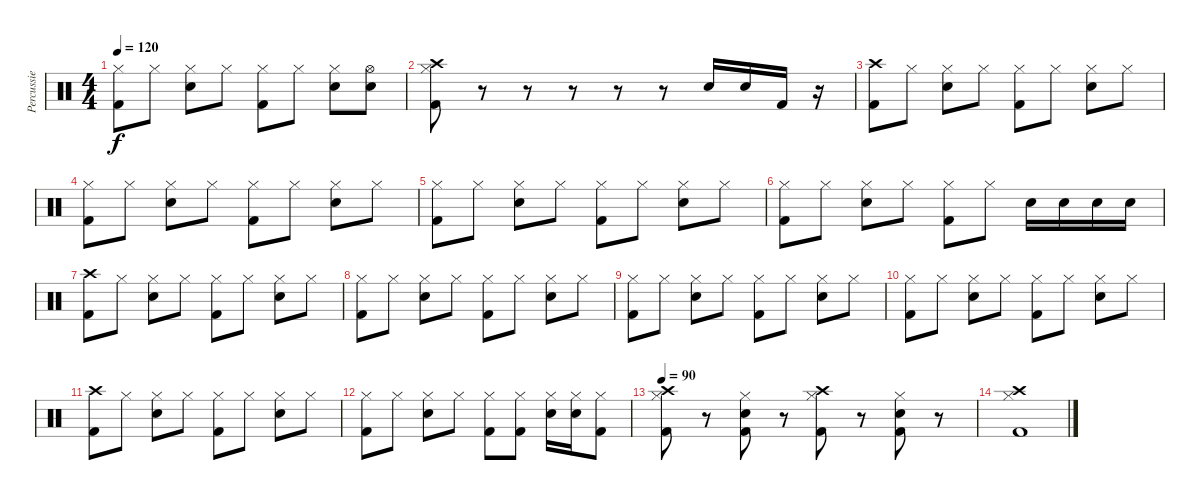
\track ("Percussie" "Percussie") {instrument percussion}
\staff {score}
\articulation defaults
\ts (4 4)
\tempo 120
\clef neutral
\ks c
("Hi-Hat (closed)" "Kick (hit) 2").8{dy f} "Hi-Hat (closed)".8 ("Hi-Hat (closed)" "Electric Snare (hit)").8 "Hi-Hat (closed)".8 ("Hi-Hat (closed)" "Kick (hit) 2").8 "Hi-Hat (closed)".8 ("Hi-Hat (closed)" "Electric Snare (hit)").8 ("Hi-Hat (open)" "Electric Snare (hit)").8 |
("Hi-Hat (closed)" "Crash high (hit)" "Kick (hit) 2").8 r.8 r.8 r.8 r.8 r.8 "Electric Snare (hit)".16 "Electric Snare (hit)".16 "Kick (hit) 2".16 r.16 |
("Crash high (hit)" "Kick (hit) 2").8 "Hi-Hat (closed)".8 ("Hi-Hat (closed)" "Electric Snare (hit)").8 "Hi-Hat (closed)".8 ("Hi-Hat (closed)" "Kick (hit) 2").8 "Hi-Hat (closed)".8 ("Hi-Hat (closed)" "Electric Snare (hit)").8 "Hi-Hat (closed)".8 |
("Hi-Hat (closed)" "Kick (hit) 2").8 "Hi-Hat (closed)".8 ("Hi-Hat (closed)" "Electric Snare (hit)").8 "Hi-Hat (closed)".8 ("Hi-Hat (closed)" "Kick (hit) 2").8 "Hi-Hat (closed)".8 ("Hi-Hat (closed)" "Electric Snare (hit)").8 "Hi-Hat (closed)".8 |
("Hi-Hat (closed)" "Kick (hit) 2").8 "Hi-Hat (closed)".8 ("Hi-Hat (closed)" "Electric Snare (hit)").8 "Hi-Hat (closed)".8 ("Hi-Hat (closed)" "Kick (hit) 2").8 "Hi-Hat (closed)".8 ("Hi-Hat (closed)" "Electric Snare (hit)").8 "Hi-Hat (closed)".8 |
("Hi-Hat (closed)" "Kick (hit) 2").8 "Hi-Hat (closed)".8 ("Hi-Hat (closed)" "Electric Snare (hit)").8 "Hi-Hat (closed)".8 ("Hi-Hat (closed)" "Kick (hit) 2").8 "Hi-Hat (closed)".8 "Electric Snare (hit)".16 "Electric Snare (hit)".16 "Electric Snare (hit)".16 "Electric Snare (hit)".16 |
("Crash high (hit)" "Kick (hit) 2").8 "Hi-Hat (closed)".8 ("Hi-Hat (closed)" "Electric Snare (hit)").8 "Hi-Hat (closed)".8 ("Hi-Hat (closed)" "Kick (hit) 2").8 "Hi-Hat (closed)".8 ("Hi-Hat (closed)" "Electric Snare (hit)").8 "Hi-Hat (closed)".8 |
("Hi-Hat (closed)" "Kick (hit) 2").8 "Hi-Hat (closed)".8 ("Hi-Hat (closed)" "Electric Snare (hit)").8 "Hi-Hat (closed)".8 ("Hi-Hat (closed)" "Kick (hit) 2").8 "Hi-Hat (closed)".8 ("Hi-Hat (closed)" "Electric Snare (hit)").8 "Hi-Hat (closed)".8 |
("Hi-Hat (closed)" "Kick (hit) 2").8 "Hi-Hat (closed)".8 ("Hi-Hat (closed)" "Electric Snare (hit)").8 "Hi-Hat (closed)".8 ("Hi-Hat (closed)" "Kick (hit) 2").8 "Hi-Hat (closed)".8 ("Hi-Hat (closed)" "Electric Snare (hit)").8 "Hi-Hat (closed)".8 |
("Hi-Hat (closed)" "Kick (hit) 2").8 "Hi-Hat (closed)".8 ("Hi-Hat (closed)" "Electric Snare (hit)").8 "Hi-Hat (closed)".8 ("Hi-Hat (closed)" "Kick (hit) 2").8 "Hi-Hat (closed)".8 ("Hi-Hat (closed)" "Electric Snare (hit)").8 "Hi-Hat (closed)".8 |
("Crash high (hit)" "Kick (hit) 2").8 "Hi-Hat (closed)".8 ("Hi-Hat (closed)" "Electric Snare (hit)").8 "Hi-Hat (closed)".8 ("Hi-Hat (closed)" "Kick (hit) 2").8 "Hi-Hat (closed)".8 ("Hi-Hat (closed)" "Electric Snare (hit)").8 "Hi-Hat (closed)".8 |
("Hi-Hat (closed)" "Kick (hit) 2").8 "Hi-Hat (closed)".8 ("Hi-Hat (closed)" "Electric Snare (hit)").8 "Hi-Hat (closed)".8 ("Hi-Hat (closed)" "Kick (hit) 2").8 ("Hi-Hat (closed)" "Kick (hit) 2").8 ("Hi-Hat (closed)" "Electric Snare (hit)").16 ("Hi-Hat (closed)" "Electric Snare (hit)").16 ("Hi-Hat (closed)" "Kick (hit) 2").8 |
\tempo 90
("Hi-Hat (closed)" "Crash high (hit)" "Kick (hit) 2").8 r.8 ("Hi-Hat (closed)" "Electric Snare (hit)" "Kick (hit) 2").8 r.8 ("Hi-Hat (closed)" "Crash high (hit)" "Kick (hit) 2").8 r.8 ("Hi-Hat (closed)" "Electric Snare (hit)" "Kick (hit) 2").8 r.8 |
("Hi-Hat (closed)" "Crash high (hit)" "Kick (hit) 2").1
